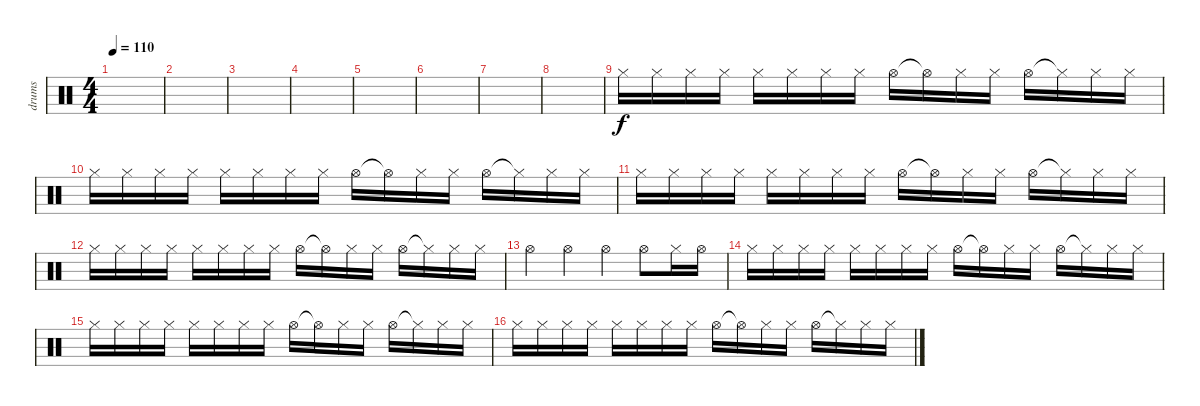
\track ("drums" "drums") {instrument percussion}
\staff {score}
\articulation defaults
\ts (4 4)
\tempo 110
\clef neutral
\ks c
|
|
|
|
|
|
|
|
"Hi-Hat (closed)".16 "Hi-Hat (closed)".16 "Hi-Hat (closed)".16 "Hi-Hat (closed)".16 "Hi-Hat (closed)".16 "Hi-Hat (closed)".16 "Hi-Hat (closed)".16 "Hi-Hat (closed)".16 "Hi-Hat (open)".16 "Hi-Hat (open)"{t}.16 "Hi-Hat (closed)".16 "Hi-Hat (closed)".16 "Hi-Hat (open)".16 "Hi-Hat (closed)"{t}.16 "Hi-Hat (closed)".16 "Hi-Hat (closed)".16 |
"Hi-Hat (closed)".16 "Hi-Hat (closed)".16 "Hi-Hat (closed)".16 "Hi-Hat (closed)".16 "Hi-Hat (closed)".16 "Hi-Hat (closed)".16 "Hi-Hat (closed)".16 "Hi-Hat (closed)".16 "Hi-Hat (open)".16 "Hi-Hat (open)"{t}.16 "Hi-Hat (closed)".16 "Hi-Hat (closed)".16 "Hi-Hat (open)".16 "Hi-Hat (closed)"{t}.16 "Hi-Hat (closed)".16 "Hi-Hat (closed)".16 |
"Hi-Hat (closed)".16 "Hi-Hat (closed)".16 "Hi-Hat (closed)".16 "Hi-Hat (closed)".16 "Hi-Hat (closed)".16 "Hi-Hat (closed)".16 "Hi-Hat (closed)".16 "Hi-Hat (closed)".16 "Hi-Hat (open)".16 "Hi-Hat (open)"{t}.16 "Hi-Hat (closed)".16 "Hi-Hat (closed)".16 "Hi-Hat (open)".16 "Hi-Hat (closed)"{t}.16 "Hi-Hat (closed)".16 "Hi-Hat (closed)".16 |
"Hi-Hat (closed)".16 "Hi-Hat (closed)".16 "Hi-Hat (closed)".16 "Hi-Hat (closed)".16 "Hi-Hat (closed)".16 "Hi-Hat (closed)".16 "Hi-Hat (closed)".16 "Hi-Hat (closed)".16 "Hi-Hat (open)".16 "Hi-Hat (open)"{t}.16 "Hi-Hat (closed)".16 "Hi-Hat (closed)".16 "Hi-Hat (open)".16 "Hi-Hat (closed)"{t}.16 "Hi-Hat (closed)".16 "Hi-Hat (closed)".16 |
"Hi-Hat (open)".4 "Hi-Hat (open)".4 "Hi-Hat (open)".4 "Hi-Hat (open)".8 "Hi-Hat (closed)".16 "Hi-Hat (open)".16 |
"Hi-Hat (closed)".16 "Hi-Hat (closed)".16 "Hi-Hat (closed)".16 "Hi-Hat (closed)".16 "Hi-Hat (closed)".16 "Hi-Hat (closed)".16 "Hi-Hat (closed)".16 "Hi-Hat (closed)".16 "Hi-Hat (open)".16 "Hi-Hat (open)"{t}.16 "Hi-Hat (closed)".16 "Hi-Hat (closed)".16 "Hi-Hat (open)".16 "Hi-Hat (closed)"{t}.16 "Hi-Hat (closed)".16 "Hi-Hat (closed)".16 |
"Hi-Hat (closed)".16 "Hi-Hat (closed)".16 "Hi-Hat (closed)".16 "Hi-Hat (closed)".16 "Hi-Hat (closed)".16 "Hi-Hat (closed)".16 "Hi-Hat (closed)".16 "Hi-Hat (closed)".16 "Hi-Hat (open)".16 "Hi-Hat (open)"{t}.16 "Hi-Hat (closed)".16 "Hi-Hat (closed)".16 "Hi-Hat (open)".16 "Hi-Hat (closed)"{t}.16 "Hi-Hat (closed)".16 "Hi-Hat (closed)".16 |
"Hi-Hat (closed)".16 "Hi-Hat (closed)".16 "Hi-Hat (closed)".16 "Hi-Hat (closed)".16 "Hi-Hat (closed)".16 "Hi-Hat (closed)".16 "Hi-Hat (closed)".16 "Hi-Hat (closed)".16 "Hi-Hat (open)".16 "Hi-Hat (open)"{t}.16 "Hi-Hat (closed)".16 "Hi-Hat (closed)".16 "Hi-Hat (open)".16 "Hi-Hat (closed)"{t}.16 "Hi-Hat (closed)".16 "Hi-Hat (closed)".16
